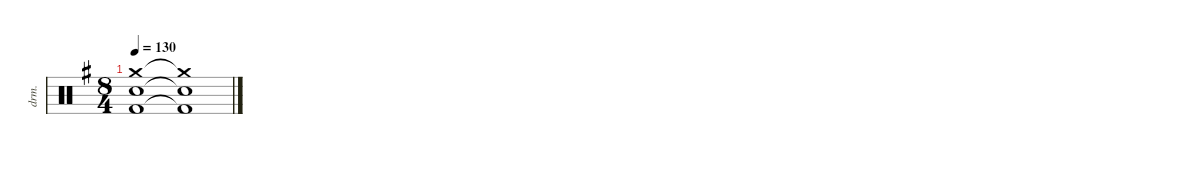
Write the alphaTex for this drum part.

\defaultSystemsLayout 4
\hideDynamics
\bracketExtendMode nobrackets
\track ("Percussion" "drm.") {instrument percussion}
\staff {score}
\articulation defaults
\ts (8 4)
\beaming (8 4 4 4 4)
\tempo 130
\clef neutral
\ks g
("Crash medium (hit)"{acc forcenatural} "Snare (hit) 2"{acc forcenatural} "Kick (hit) 2"{acc forcenatural}).1{dy f beam Down} ("Crash medium (hit)"{t acc forcenatural} "Snare (hit) 2"{t acc forcenatural} "Kick (hit) 2"{t acc forcenatural}).1{beam Down}
